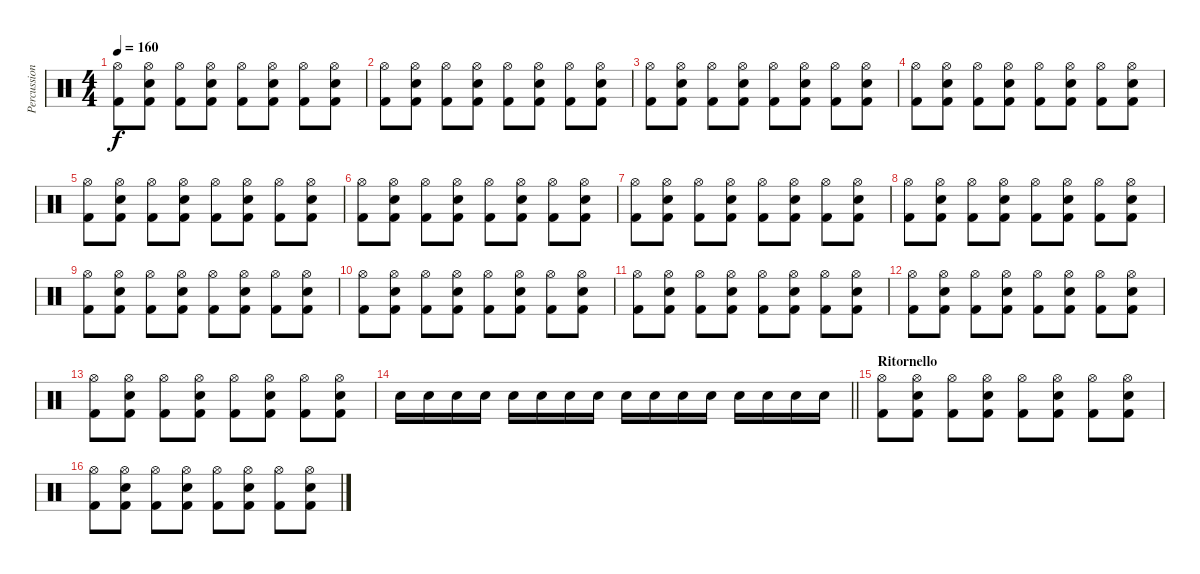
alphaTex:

\track ("Percussioni" "Percussion") {instrument percussion}
\staff {score}
\articulation defaults
\ts (4 4)
\tempo 160
\clef neutral
\ks c
("Hi-Hat (open)" "Kick (hit) 2").8{dy f} ("Hi-Hat (open)" "Snare (hit) 2" "Kick (hit) 2").8 ("Hi-Hat (open)" "Kick (hit) 2").8 ("Hi-Hat (open)" "Snare (hit) 2" "Kick (hit) 2").8 ("Hi-Hat (open)" "Kick (hit) 2").8 ("Hi-Hat (open)" "Snare (hit) 2" "Kick (hit) 2").8 ("Hi-Hat (open)" "Kick (hit) 2").8 ("Hi-Hat (open)" "Snare (hit) 2" "Kick (hit) 2").8 |
("Hi-Hat (open)" "Kick (hit) 2").8 ("Hi-Hat (open)" "Snare (hit) 2" "Kick (hit) 2").8 ("Hi-Hat (open)" "Kick (hit) 2").8 ("Hi-Hat (open)" "Snare (hit) 2" "Kick (hit) 2").8 ("Hi-Hat (open)" "Kick (hit) 2").8 ("Hi-Hat (open)" "Snare (hit) 2" "Kick (hit) 2").8 ("Hi-Hat (open)" "Kick (hit) 2").8 ("Hi-Hat (open)" "Snare (hit) 2" "Kick (hit) 2").8 |
("Hi-Hat (open)" "Kick (hit) 2").8 ("Hi-Hat (open)" "Snare (hit) 2" "Kick (hit) 2").8 ("Hi-Hat (open)" "Kick (hit) 2").8 ("Hi-Hat (open)" "Snare (hit) 2" "Kick (hit) 2").8 ("Hi-Hat (open)" "Kick (hit) 2").8 ("Hi-Hat (open)" "Snare (hit) 2" "Kick (hit) 2").8 ("Hi-Hat (open)" "Kick (hit) 2").8 ("Hi-Hat (open)" "Snare (hit) 2" "Kick (hit) 2").8 |
("Hi-Hat (open)" "Kick (hit) 2").8 ("Hi-Hat (open)" "Snare (hit) 2" "Kick (hit) 2").8 ("Hi-Hat (open)" "Kick (hit) 2").8 ("Hi-Hat (open)" "Snare (hit) 2" "Kick (hit) 2").8 ("Hi-Hat (open)" "Kick (hit) 2").8 ("Hi-Hat (open)" "Snare (hit) 2" "Kick (hit) 2").8 ("Hi-Hat (open)" "Kick (hit) 2").8 ("Hi-Hat (open)" "Snare (hit) 2" "Kick (hit) 2").8 |
("Hi-Hat (open)" "Kick (hit) 2").8 ("Hi-Hat (open)" "Snare (hit) 2" "Kick (hit) 2").8 ("Hi-Hat (open)" "Kick (hit) 2").8 ("Hi-Hat (open)" "Snare (hit) 2" "Kick (hit) 2").8 ("Hi-Hat (open)" "Kick (hit) 2").8 ("Hi-Hat (open)" "Snare (hit) 2" "Kick (hit) 2").8 ("Hi-Hat (open)" "Kick (hit) 2").8 ("Hi-Hat (open)" "Snare (hit) 2" "Kick (hit) 2").8 |
("Hi-Hat (open)" "Kick (hit) 2").8 ("Hi-Hat (open)" "Snare (hit) 2" "Kick (hit) 2").8 ("Hi-Hat (open)" "Kick (hit) 2").8 ("Hi-Hat (open)" "Snare (hit) 2" "Kick (hit) 2").8 ("Hi-Hat (open)" "Kick (hit) 2").8 ("Hi-Hat (open)" "Snare (hit) 2" "Kick (hit) 2").8 ("Hi-Hat (open)" "Kick (hit) 2").8 ("Hi-Hat (open)" "Snare (hit) 2" "Kick (hit) 2").8 |
("Hi-Hat (open)" "Kick (hit) 2").8 ("Hi-Hat (open)" "Snare (hit) 2" "Kick (hit) 2").8 ("Hi-Hat (open)" "Kick (hit) 2").8 ("Hi-Hat (open)" "Snare (hit) 2" "Kick (hit) 2").8 ("Hi-Hat (open)" "Kick (hit) 2").8 ("Hi-Hat (open)" "Snare (hit) 2" "Kick (hit) 2").8 ("Hi-Hat (open)" "Kick (hit) 2").8 ("Hi-Hat (open)" "Snare (hit) 2" "Kick (hit) 2").8 |
("Hi-Hat (open)" "Kick (hit) 2").8 ("Hi-Hat (open)" "Snare (hit) 2" "Kick (hit) 2").8 ("Hi-Hat (open)" "Kick (hit) 2").8 ("Hi-Hat (open)" "Snare (hit) 2" "Kick (hit) 2").8 ("Hi-Hat (open)" "Kick (hit) 2").8 ("Hi-Hat (open)" "Snare (hit) 2" "Kick (hit) 2").8 ("Hi-Hat (open)" "Kick (hit) 2").8 ("Hi-Hat (open)" "Snare (hit) 2" "Kick (hit) 2").8 |
("Hi-Hat (open)" "Kick (hit) 2").8 ("Hi-Hat (open)" "Snare (hit) 2" "Kick (hit) 2").8 ("Hi-Hat (open)" "Kick (hit) 2").8 ("Hi-Hat (open)" "Snare (hit) 2" "Kick (hit) 2").8 ("Hi-Hat (open)" "Kick (hit) 2").8 ("Hi-Hat (open)" "Snare (hit) 2" "Kick (hit) 2").8 ("Hi-Hat (open)" "Kick (hit) 2").8 ("Hi-Hat (open)" "Snare (hit) 2" "Kick (hit) 2").8 |
("Hi-Hat (open)" "Kick (hit) 2").8 ("Hi-Hat (open)" "Snare (hit) 2" "Kick (hit) 2").8 ("Hi-Hat (open)" "Kick (hit) 2").8 ("Hi-Hat (open)" "Snare (hit) 2" "Kick (hit) 2").8 ("Hi-Hat (open)" "Kick (hit) 2").8 ("Hi-Hat (open)" "Snare (hit) 2" "Kick (hit) 2").8 ("Hi-Hat (open)" "Kick (hit) 2").8 ("Hi-Hat (open)" "Snare (hit) 2" "Kick (hit) 2").8 |
("Hi-Hat (open)" "Kick (hit) 2").8 ("Hi-Hat (open)" "Snare (hit) 2" "Kick (hit) 2").8 ("Hi-Hat (open)" "Kick (hit) 2").8 ("Hi-Hat (open)" "Snare (hit) 2" "Kick (hit) 2").8 ("Hi-Hat (open)" "Kick (hit) 2").8 ("Hi-Hat (open)" "Snare (hit) 2" "Kick (hit) 2").8 ("Hi-Hat (open)" "Kick (hit) 2").8 ("Hi-Hat (open)" "Snare (hit) 2" "Kick (hit) 2").8 |
("Hi-Hat (open)" "Kick (hit) 2").8 ("Hi-Hat (open)" "Snare (hit) 2" "Kick (hit) 2").8 ("Hi-Hat (open)" "Kick (hit) 2").8 ("Hi-Hat (open)" "Snare (hit) 2" "Kick (hit) 2").8 ("Hi-Hat (open)" "Kick (hit) 2").8 ("Hi-Hat (open)" "Snare (hit) 2" "Kick (hit) 2").8 ("Hi-Hat (open)" "Kick (hit) 2").8 ("Hi-Hat (open)" "Snare (hit) 2" "Kick (hit) 2").8 |
("Hi-Hat (open)" "Kick (hit) 2").8 ("Hi-Hat (open)" "Snare (hit) 2" "Kick (hit) 2").8 ("Hi-Hat (open)" "Kick (hit) 2").8 ("Hi-Hat (open)" "Snare (hit) 2" "Kick (hit) 2").8 ("Hi-Hat (open)" "Kick (hit) 2").8 ("Hi-Hat (open)" "Snare (hit) 2" "Kick (hit) 2").8 ("Hi-Hat (open)" "Kick (hit) 2").8 ("Hi-Hat (open)" "Snare (hit) 2" "Kick (hit) 2").8 |
\barLineRight lightlight "Snare (hit) 2".16 "Snare (hit) 2".16 "Snare (hit) 2".16 "Snare (hit) 2".16 "Snare (hit) 2".16 "Snare (hit) 2".16 "Snare (hit) 2".16 "Snare (hit) 2".16 "Snare (hit) 2".16 "Snare (hit) 2".16 "Snare (hit) 2".16 "Snare (hit) 2".16 "Snare (hit) 2".16 "Snare (hit) 2".16 "Snare (hit) 2".16 "Snare (hit) 2".16
|
\section ("" "Ritornello")
("Hi-Hat (open)" "Kick (hit) 2").8 ("Hi-Hat (open)" "Snare (hit) 2" "Kick (hit) 2").8 ("Hi-Hat (open)" "Kick (hit) 2").8 ("Hi-Hat (open)" "Snare (hit) 2" "Kick (hit) 2").8 ("Hi-Hat (open)" "Kick (hit) 2").8 ("Hi-Hat (open)" "Snare (hit) 2" "Kick (hit) 2").8 ("Hi-Hat (open)" "Kick (hit) 2").8 ("Hi-Hat (open)" "Snare (hit) 2" "Kick (hit) 2").8 |
("Hi-Hat (open)" "Kick (hit) 2").8 ("Hi-Hat (open)" "Snare (hit) 2" "Kick (hit) 2").8 ("Hi-Hat (open)" "Kick (hit) 2").8 ("Hi-Hat (open)" "Snare (hit) 2" "Kick (hit) 2").8 ("Hi-Hat (open)" "Kick (hit) 2").8 ("Hi-Hat (open)" "Snare (hit) 2" "Kick (hit) 2").8 ("Hi-Hat (open)" "Kick (hit) 2").8 ("Hi-Hat (open)" "Snare (hit) 2" "Kick (hit) 2").8
